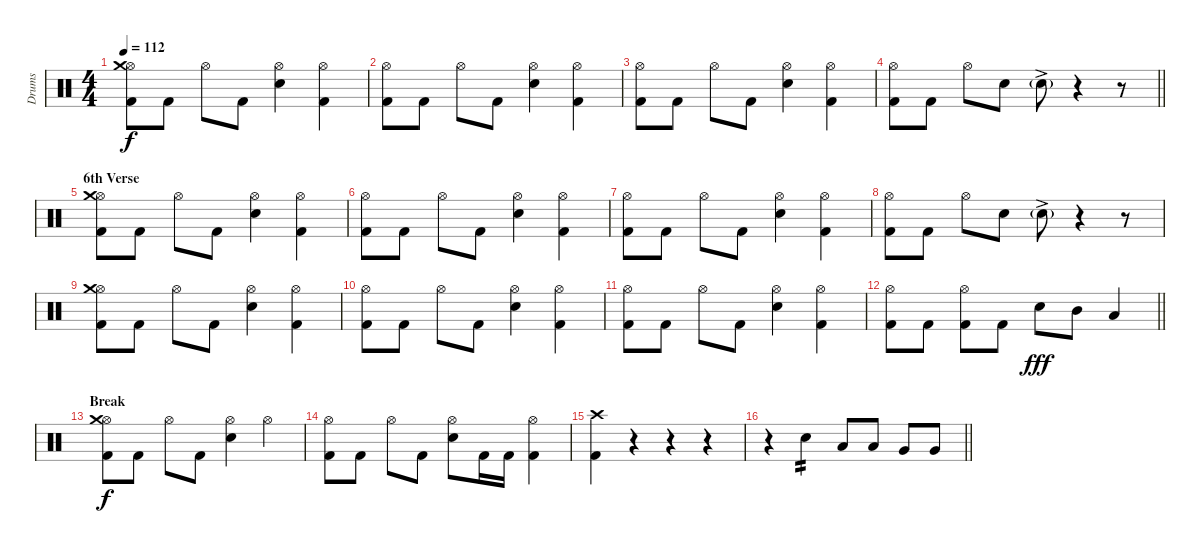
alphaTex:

\track ("Drums" "Drums") {instrument percussion}
\staff {score}
\articulation defaults
\ts (4 4)
\tempo 112
\clef neutral
\ks c
("Kick (hit) 2" "Hi-Hat (open)" "Crash medium (hit)").8{dy f} "Kick (hit) 2".8 "Hi-Hat (open)".8 "Kick (hit) 2".8 ("Electric Snare (hit)" "Hi-Hat (open)").4 ("Kick (hit) 2" "Hi-Hat (open)").4 |
("Kick (hit) 2" "Hi-Hat (open)").8 "Kick (hit) 2".8 "Hi-Hat (open)".8 "Kick (hit) 2".8 ("Electric Snare (hit)" "Hi-Hat (open)").4 ("Kick (hit) 2" "Hi-Hat (open)").4 |
("Kick (hit) 2" "Hi-Hat (open)").8 "Kick (hit) 2".8 "Hi-Hat (open)".8 "Kick (hit) 2".8 ("Electric Snare (hit)" "Hi-Hat (open)").4 ("Kick (hit) 2" "Hi-Hat (open)").4 |
\barLineRight lightlight
("Kick (hit) 2" "Hi-Hat (open)").8 "Kick (hit) 2".8 "Hi-Hat (open)".8 "Metronome (bell)".8 "Snare (hit)"{g ac}.8 r.4 r.8 |
\section ("" "6th Verse")
("Kick (hit) 2" "Hi-Hat (open)" "Crash medium (hit)").8 "Kick (hit) 2".8 "Hi-Hat (open)".8 "Kick (hit) 2".8 ("Electric Snare (hit)" "Hi-Hat (open)").4 ("Kick (hit) 2" "Hi-Hat (open)").4 |
("Kick (hit) 2" "Hi-Hat (open)").8 "Kick (hit) 2".8 "Hi-Hat (open)".8 "Kick (hit) 2".8 ("Electric Snare (hit)" "Hi-Hat (open)").4 ("Kick (hit) 2" "Hi-Hat (open)").4 |
("Kick (hit) 2" "Hi-Hat (open)").8 "Kick (hit) 2".8 "Hi-Hat (open)".8 "Kick (hit) 2".8 ("Electric Snare (hit)" "Hi-Hat (open)").4 ("Kick (hit) 2" "Hi-Hat (open)").4 |
("Kick (hit) 2" "Hi-Hat (open)").8 "Kick (hit) 2".8 "Hi-Hat (open)".8 "Metronome (bell)".8 "Snare (hit)"{g ac}.8 r.4 r.8 |
("Kick (hit) 2" "Hi-Hat (open)" "Crash medium (hit)").8 "Kick (hit) 2".8 "Hi-Hat (open)".8 "Kick (hit) 2".8 ("Electric Snare (hit)" "Hi-Hat (open)").4 ("Kick (hit) 2" "Hi-Hat (open)").4 |
("Kick (hit) 2" "Hi-Hat (open)").8 "Kick (hit) 2".8 "Hi-Hat (open)".8 "Kick (hit) 2".8 ("Electric Snare (hit)" "Hi-Hat (open)").4 ("Kick (hit) 2" "Hi-Hat (open)").4 |
("Kick (hit) 2" "Hi-Hat (open)").8 "Kick (hit) 2".8 "Hi-Hat (open)".8 "Kick (hit) 2".8 ("Electric Snare (hit)" "Hi-Hat (open)").4 ("Kick (hit) 2" "Hi-Hat (open)").4 |
\barLineRight lightlight
("Kick (hit) 2" "Hi-Hat (open)").8 "Kick (hit) 2".8 ("Kick (hit) 2" "Hi-Hat (open)").8 "Kick (hit) 2".8 "Electric Snare (hit)".8{dy fff} "Mid Tom (hit)".8 "Low Tom (hit)".4 |
\section ("" "Break")
("Kick (hit) 2" "Hi-Hat (open)" "Crash medium (hit)").8{dy f} "Kick (hit) 2".8 "Hi-Hat (open)".8 "Kick (hit) 2".8 ("Electric Snare (hit)" "Hi-Hat (open)").4 "Hi-Hat (open)".4 |
("Kick (hit) 2" "Hi-Hat (open)").8 "Kick (hit) 2".8 "Hi-Hat (open)".8 "Kick (hit) 2".8 ("Electric Snare (hit)" "Hi-Hat (open)").8 "Kick (hit) 2".16 "Kick (hit) 2".16 ("Kick (hit) 2" "Hi-Hat (open)").4 |
("Kick (hit) 2" "Crash high (hit)").4 r.4 r.4 r.4 |
\barLineRight lightlight
r.4 "Snare (hit) 2".4{tp 2} "Low Tom (hit)".8 "Low Tom (hit)".8 "Very Low Tom (hit)".8 "Very Low Tom (hit)".8
